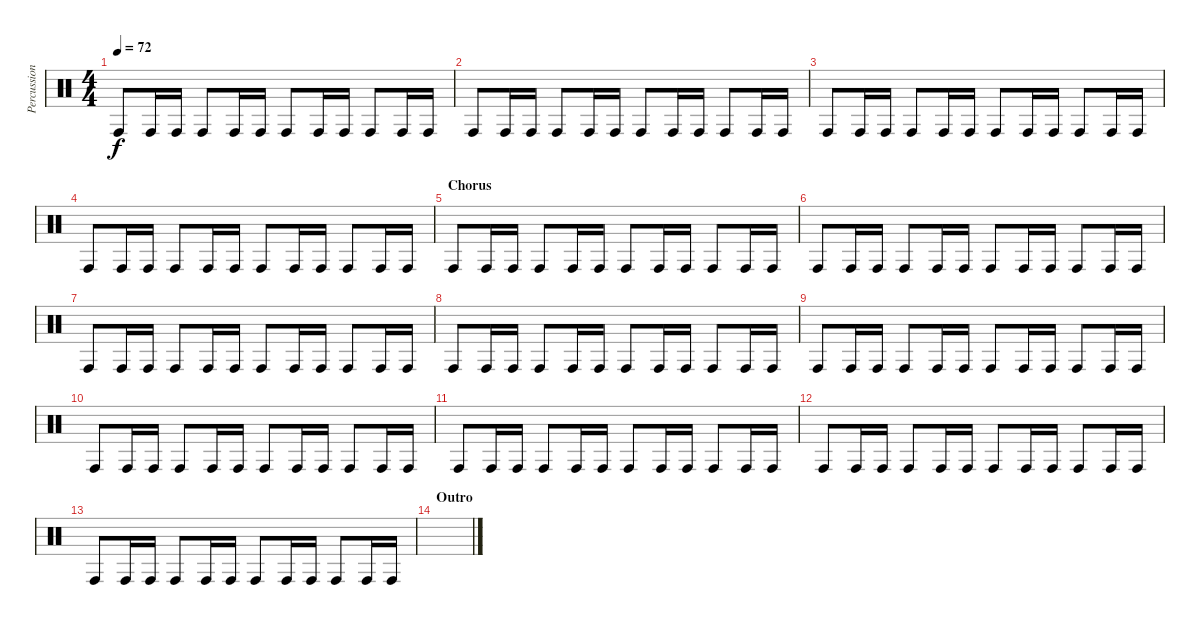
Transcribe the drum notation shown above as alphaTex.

\track ("Percussions" "Percussion") {instrument percussion}
\staff {score}
\articulation defaults
\ts (4 4)
\tempo 72
\clef neutral
\ks c "Conga high (hit)".8{dy f} "Conga high (hit)".16 "Conga high (hit)".16 "Conga high (hit)".8 "Conga high (hit)".16 "Conga high (hit)".16 "Conga high (hit)".8 "Conga high (hit)".16 "Conga high (hit)".16 "Conga high (hit)".8 "Conga high (hit)".16 "Conga high (hit)".16
|
"Conga high (hit)".8 "Conga high (hit)".16 "Conga high (hit)".16 "Conga high (hit)".8 "Conga high (hit)".16 "Conga high (hit)".16 "Conga high (hit)".8 "Conga high (hit)".16 "Conga high (hit)".16 "Conga high (hit)".8 "Conga high (hit)".16 "Conga high (hit)".16 |
"Conga high (hit)".8 "Conga high (hit)".16 "Conga high (hit)".16 "Conga high (hit)".8 "Conga high (hit)".16 "Conga high (hit)".16 "Conga high (hit)".8 "Conga high (hit)".16 "Conga high (hit)".16 "Conga high (hit)".8 "Conga high (hit)".16 "Conga high (hit)".16 |
"Conga high (hit)".8 "Conga high (hit)".16 "Conga high (hit)".16 "Conga high (hit)".8 "Conga high (hit)".16 "Conga high (hit)".16 "Conga high (hit)".8 "Conga high (hit)".16 "Conga high (hit)".16 "Conga high (hit)".8 "Conga high (hit)".16 "Conga high (hit)".16 |
\section ("" "Chorus")
"Conga high (hit)".8 "Conga high (hit)".16 "Conga high (hit)".16 "Conga high (hit)".8 "Conga high (hit)".16 "Conga high (hit)".16 "Conga high (hit)".8 "Conga high (hit)".16 "Conga high (hit)".16 "Conga high (hit)".8 "Conga high (hit)".16 "Conga high (hit)".16 |
"Conga high (hit)".8 "Conga high (hit)".16 "Conga high (hit)".16 "Conga high (hit)".8 "Conga high (hit)".16 "Conga high (hit)".16 "Conga high (hit)".8 "Conga high (hit)".16 "Conga high (hit)".16 "Conga high (hit)".8 "Conga high (hit)".16 "Conga high (hit)".16 |
"Conga high (hit)".8 "Conga high (hit)".16 "Conga high (hit)".16 "Conga high (hit)".8 "Conga high (hit)".16 "Conga high (hit)".16 "Conga high (hit)".8 "Conga high (hit)".16 "Conga high (hit)".16 "Conga high (hit)".8 "Conga high (hit)".16 "Conga high (hit)".16 |
"Conga high (hit)".8 "Conga high (hit)".16 "Conga high (hit)".16 "Conga high (hit)".8 "Conga high (hit)".16 "Conga high (hit)".16 "Conga high (hit)".8 "Conga high (hit)".16 "Conga high (hit)".16 "Conga high (hit)".8 "Conga high (hit)".16 "Conga high (hit)".16 |
"Conga high (hit)".8 "Conga high (hit)".16 "Conga high (hit)".16 "Conga high (hit)".8 "Conga high (hit)".16 "Conga high (hit)".16 "Conga high (hit)".8 "Conga high (hit)".16 "Conga high (hit)".16 "Conga high (hit)".8 "Conga high (hit)".16 "Conga high (hit)".16 |
"Conga high (hit)".8 "Conga high (hit)".16 "Conga high (hit)".16 "Conga high (hit)".8 "Conga high (hit)".16 "Conga high (hit)".16 "Conga high (hit)".8 "Conga high (hit)".16 "Conga high (hit)".16 "Conga high (hit)".8 "Conga high (hit)".16 "Conga high (hit)".16 |
"Conga high (hit)".8 "Conga high (hit)".16 "Conga high (hit)".16 "Conga high (hit)".8 "Conga high (hit)".16 "Conga high (hit)".16 "Conga high (hit)".8 "Conga high (hit)".16 "Conga high (hit)".16 "Conga high (hit)".8 "Conga high (hit)".16 "Conga high (hit)".16 |
"Conga high (hit)".8 "Conga high (hit)".16 "Conga high (hit)".16 "Conga high (hit)".8 "Conga high (hit)".16 "Conga high (hit)".16 "Conga high (hit)".8 "Conga high (hit)".16 "Conga high (hit)".16 "Conga high (hit)".8 "Conga high (hit)".16 "Conga high (hit)".16 |
"Conga high (hit)".8{volume 0} "Conga high (hit)".16 "Conga high (hit)".16 "Conga high (hit)".8 "Conga high (hit)".16 "Conga high (hit)".16 "Conga high (hit)".8 "Conga high (hit)".16 "Conga high (hit)".16 "Conga high (hit)".8 "Conga high (hit)".16 "Conga high (hit)".16 |
\section ("" "Outro")
